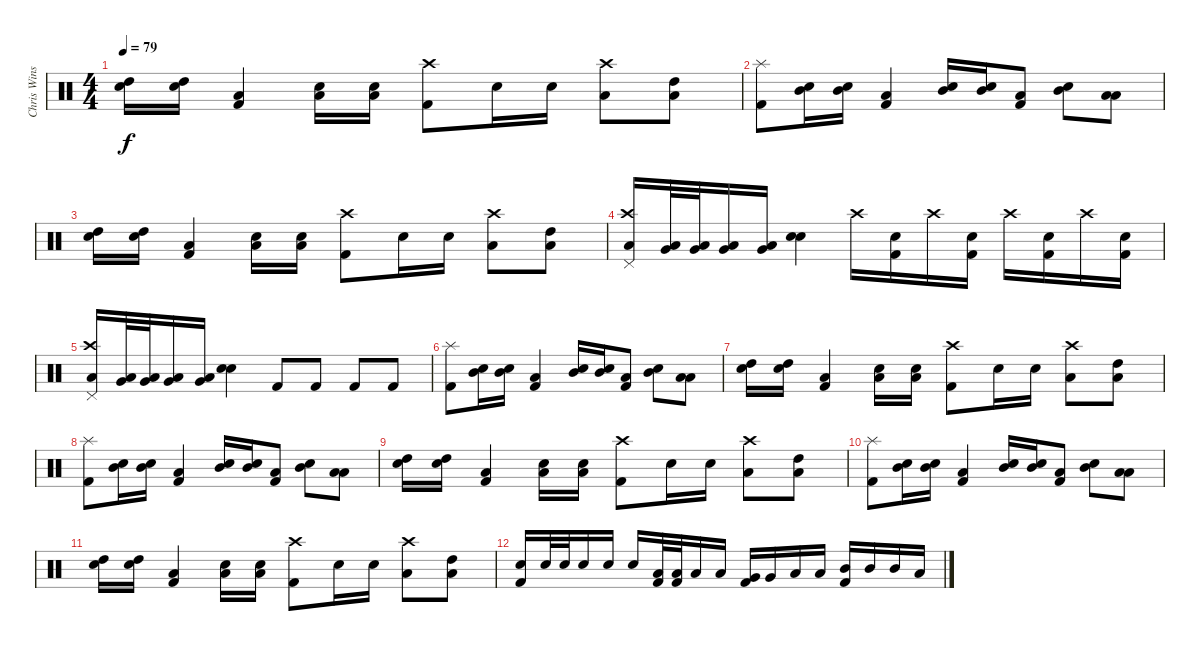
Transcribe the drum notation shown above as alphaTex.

\track ("Chris Winship (Drums)" "Chris Wins") {instrument percussion}
\staff {score}
\articulation defaults
\ts (4 4)
\tempo 79
\clef neutral
\ks c
("High Tom (hit)" "Snare (hit) 2").16{dy f} ("High Tom (hit)" "Snare (hit) 2").16 ("Low Floor Tom (hit)" "Kick (hit) 2").4 ("Low Tom (hit)" "Snare (hit) 2").16 ("Low Tom (hit)" "Snare (hit) 2").16 ("Crash high (hit)" "Kick (hit) 2").8 "Snare (hit) 2".16 "Snare (hit) 2".16 ("Crash high (hit)" "Low Floor Tom (hit)").8 ("Low Floor Tom (hit)" "High Tom (hit)").8 |
("Splash (hit)" "Kick (hit) 2").8 ("Mid Tom (hit)" "Snare (hit) 2").16 ("Mid Tom (hit)" "Snare (hit) 2").16 ("Low Floor Tom (hit)" "Kick (hit) 2").4 ("Mid Tom (hit)" "Snare (hit) 2").16 ("Mid Tom (hit)" "Snare (hit) 2").16 ("Low Floor Tom (hit)" "Kick (hit) 2").8 ("Mid Tom (hit)" "Snare (hit) 2").8 ("Low Tom (hit)" "Low Floor Tom (hit)").8 |
("High Tom (hit)" "Snare (hit) 2").16 ("High Tom (hit)" "Snare (hit) 2").16 ("Low Floor Tom (hit)" "Kick (hit) 2").4 ("Low Tom (hit)" "Snare (hit) 2").16 ("Low Tom (hit)" "Snare (hit) 2").16 ("Crash high (hit)" "Kick (hit) 2").8 "Snare (hit) 2".16 "Snare (hit) 2".16 ("Crash high (hit)" "Low Floor Tom (hit)").8 ("Low Floor Tom (hit)" "High Tom (hit)").8 |
("Crash high (hit)" "Low Floor Tom (hit)" "Pedal Hi-Hat (hit)").16 ("Very Low Tom (hit)" "Low Floor Tom (hit)").32 ("Very Low Tom (hit)" "Low Floor Tom (hit)").32 ("Very Low Tom (hit)" "Low Floor Tom (hit)").16 ("Very Low Tom (hit)" "Low Floor Tom (hit)").16 ("Snare (hit) 2" "Electric Snare (hit)").4 "Crash high (hit)".16 ("Snare (hit) 2" "Kick (hit) 2").16 "Crash high (hit)".16 ("Snare (hit) 2" "Kick (hit) 2").16 "Crash high (hit)".16 ("Snare (hit) 2" "Kick (hit) 2").16 "Crash high (hit)".16 ("Snare (hit) 2" "Kick (hit) 2").16 |
("Crash high (hit)" "Low Floor Tom (hit)" "Pedal Hi-Hat (hit)").16 ("Very Low Tom (hit)" "Low Floor Tom (hit)").32 ("Very Low Tom (hit)" "Low Floor Tom (hit)").32 ("Very Low Tom (hit)" "Low Floor Tom (hit)").16 ("Very Low Tom (hit)" "Low Floor Tom (hit)").16 ("Snare (hit) 2" "Electric Snare (hit)").4 "Kick (hit) 2".8 "Kick (hit) 2".8 "Kick (hit) 2".8 "Kick (hit) 2".8 |
("Splash (hit)" "Kick (hit) 2").8 ("Mid Tom (hit)" "Snare (hit) 2").16 ("Mid Tom (hit)" "Snare (hit) 2").16 ("Low Floor Tom (hit)" "Kick (hit) 2").4 ("Mid Tom (hit)" "Snare (hit) 2").16 ("Mid Tom (hit)" "Snare (hit) 2").16 ("Low Floor Tom (hit)" "Kick (hit) 2").8 ("Mid Tom (hit)" "Snare (hit) 2").8 ("Low Tom (hit)" "Low Floor Tom (hit)").8 |
("High Tom (hit)" "Snare (hit) 2").16 ("High Tom (hit)" "Snare (hit) 2").16 ("Low Floor Tom (hit)" "Kick (hit) 2").4 ("Low Tom (hit)" "Snare (hit) 2").16 ("Low Tom (hit)" "Snare (hit) 2").16 ("Crash high (hit)" "Kick (hit) 2").8 "Snare (hit) 2".16 "Snare (hit) 2".16 ("Crash high (hit)" "Low Floor Tom (hit)").8 ("Low Floor Tom (hit)" "High Tom (hit)").8 |
("Splash (hit)" "Kick (hit) 2").8 ("Mid Tom (hit)" "Snare (hit) 2").16 ("Mid Tom (hit)" "Snare (hit) 2").16 ("Low Floor Tom (hit)" "Kick (hit) 2").4 ("Mid Tom (hit)" "Snare (hit) 2").16 ("Mid Tom (hit)" "Snare (hit) 2").16 ("Low Floor Tom (hit)" "Kick (hit) 2").8 ("Mid Tom (hit)" "Snare (hit) 2").8 ("Low Tom (hit)" "Low Floor Tom (hit)").8 |
("High Tom (hit)" "Snare (hit) 2").16 ("High Tom (hit)" "Snare (hit) 2").16 ("Low Floor Tom (hit)" "Kick (hit) 2").4 ("Low Tom (hit)" "Snare (hit) 2").16 ("Low Tom (hit)" "Snare (hit) 2").16 ("Crash high (hit)" "Kick (hit) 2").8 "Snare (hit) 2".16 "Snare (hit) 2".16 ("Crash high (hit)" "Low Floor Tom (hit)").8 ("Low Floor Tom (hit)" "High Tom (hit)").8 |
("Splash (hit)" "Kick (hit) 2").8 ("Mid Tom (hit)" "Snare (hit) 2").16 ("Mid Tom (hit)" "Snare (hit) 2").16 ("Low Floor Tom (hit)" "Kick (hit) 2").4 ("Mid Tom (hit)" "Snare (hit) 2").16 ("Mid Tom (hit)" "Snare (hit) 2").16 ("Low Floor Tom (hit)" "Kick (hit) 2").8 ("Mid Tom (hit)" "Snare (hit) 2").8 ("Low Tom (hit)" "Low Floor Tom (hit)").8 |
("High Tom (hit)" "Snare (hit) 2").16 ("High Tom (hit)" "Snare (hit) 2").16 ("Low Floor Tom (hit)" "Kick (hit) 2").4 ("Low Tom (hit)" "Snare (hit) 2").16 ("Low Tom (hit)" "Snare (hit) 2").16 ("Crash high (hit)" "Kick (hit) 2").8 "Snare (hit) 2".16 "Snare (hit) 2".16 ("Crash high (hit)" "Low Floor Tom (hit)").8 ("Low Floor Tom (hit)" "High Tom (hit)").8 |
("Electric Snare (hit)" "Kick (hit) 2").16 "Electric Snare (hit)".32 "Electric Snare (hit)".32 "Electric Snare (hit)".16 "Electric Snare (hit)".16 "Electric Snare (hit)".16 ("Low Floor Tom (hit)" "Kick (hit) 2").32 ("Low Floor Tom (hit)" "Kick (hit) 2").32 "Low Floor Tom (hit)".16 "Low Floor Tom (hit)".16 ("Very Low Tom (hit)" "Kick (hit) 2").16 "Very Low Tom (hit)".16 "Low Tom (hit)".16 "Low Tom (hit)".16 ("Mid Tom (hit)" "Kick (hit) 2").16 "Mid Tom (hit)".16 "Mid Tom (hit)".16 "Low Tom (hit)".16
